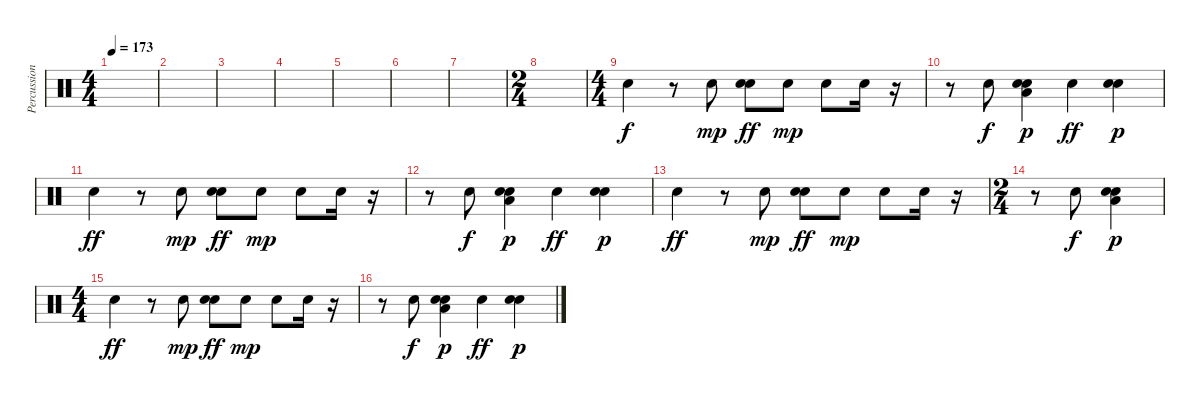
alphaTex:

\track ("Percussion" "Percussion") {instrument percussion}
\staff {score}
\articulation defaults
\ts (4 4)
\tempo 173
\clef neutral
\ks c
|
|
|
|
|
|
|
\ts (2 4)
|
\ts (4 4)
"Hand Clap (hit)".4 r.8 "Hand Clap (hit)".8{dy mp} ("Snare (hit) 2" "Hand Clap (hit)").8{dy ff} "Hand Clap (hit)".8{dy mp} "Hand Clap (hit)".8 "Hand Clap (hit)".16 r.16 |
r.8 "Hand Clap (hit)".8{dy f} ("Hand Clap (hit)" "Snare (hit) 2" "Low Floor Tom (hit)").4{dy p} "Hand Clap (hit)".4{dy ff} ("Snare (hit) 2" "Hand Clap (hit)").4{dy p} |
"Hand Clap (hit)".4{dy ff} r.8 "Hand Clap (hit)".8{dy mp} ("Snare (hit) 2" "Hand Clap (hit)").8{dy ff} "Hand Clap (hit)".8{dy mp} "Hand Clap (hit)".8 "Hand Clap (hit)".16 r.16 |
r.8 "Hand Clap (hit)".8{dy f} ("Hand Clap (hit)" "Snare (hit) 2" "Low Floor Tom (hit)").4{dy p} "Hand Clap (hit)".4{dy ff} ("Snare (hit) 2" "Hand Clap (hit)").4{dy p} |
"Hand Clap (hit)".4{dy ff} r.8 "Hand Clap (hit)".8{dy mp} ("Snare (hit) 2" "Hand Clap (hit)").8{dy ff} "Hand Clap (hit)".8{dy mp} "Hand Clap (hit)".8 "Hand Clap (hit)".16 r.16 |
\ts (2 4)
r.8 "Hand Clap (hit)".8{dy f} ("Hand Clap (hit)" "Snare (hit) 2" "Low Floor Tom (hit)").4{dy p} |
\ts (4 4)
"Hand Clap (hit)".4{dy ff} r.8 "Hand Clap (hit)".8{dy mp} ("Snare (hit) 2" "Hand Clap (hit)").8{dy ff} "Hand Clap (hit)".8{dy mp} "Hand Clap (hit)".8 "Hand Clap (hit)".16 r.16 |
r.8 "Hand Clap (hit)".8{dy f} ("Hand Clap (hit)" "Snare (hit) 2" "Low Floor Tom (hit)").4{dy p} "Hand Clap (hit)".4{dy ff} ("Snare (hit) 2" "Hand Clap (hit)").4{dy p}
